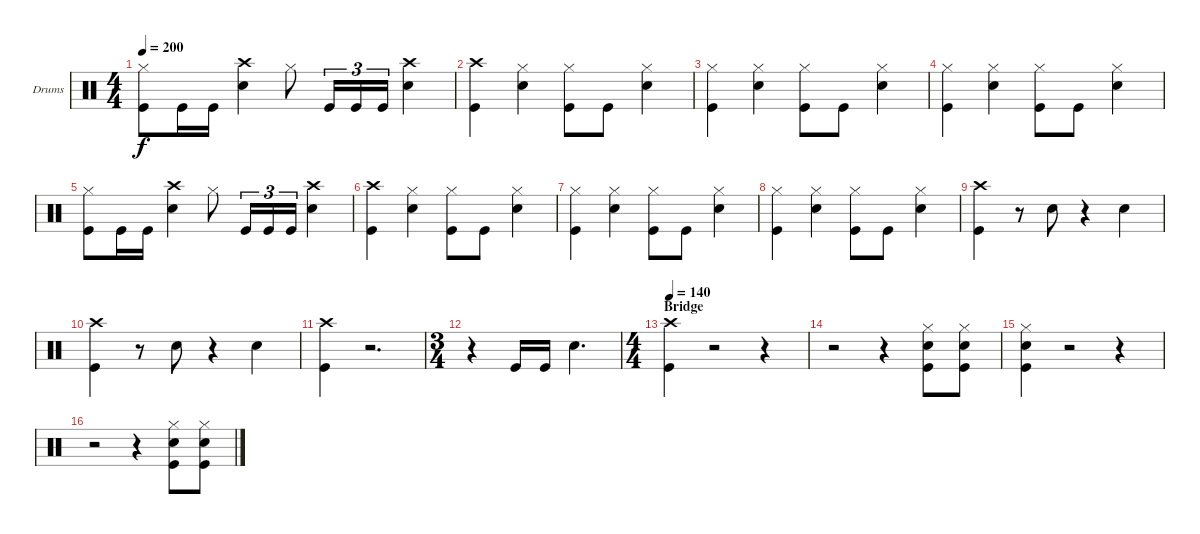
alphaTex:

\defaultSystemsLayout 4
\bracketExtendMode groupsimilarinstruments
\firstSystemTrackNameOrientation horizontal
\otherSystemsTrackNameOrientation horizontal
\track ("Drums" "Drums") {instrument percussion}
\staff {score}
\articulation defaults
\ts (4 4)
\tempo 200
\clef neutral
\ks c
("Hi-Hat (closed)" "Kick (hit)").8{dy f} "Kick (hit)".16 "Kick (hit)".16 ("Snare (hit) 2" "Crash high (hit)").4 "Hi-Hat (closed)".8 "Kick (hit)".16{tu (3 2)} "Kick (hit)".16{tu (3 2)} "Kick (hit)".16{tu (3 2)} ("Snare (hit) 2" "Crash high (hit)").4 |
("Crash high (hit)" "Kick (hit)").4 ("Snare (hit) 2" "Hi-Hat (closed)").4 ("Kick (hit)" "Hi-Hat (closed)").8 "Kick (hit)".8 ("Snare (hit) 2" "Hi-Hat (closed)").4 |
("Kick (hit)" "Hi-Hat (closed)").4 ("Snare (hit) 2" "Hi-Hat (closed)").4 ("Hi-Hat (closed)" "Kick (hit)").8 "Kick (hit)".8 ("Snare (hit) 2" "Hi-Hat (closed)").4 |
("Kick (hit)" "Hi-Hat (closed)").4 ("Snare (hit) 2" "Hi-Hat (closed)").4 ("Hi-Hat (closed)" "Kick (hit)").8 "Kick (hit)".8 ("Snare (hit) 2" "Hi-Hat (closed)").4 |
("Hi-Hat (closed)" "Kick (hit)").8 "Kick (hit)".16 "Kick (hit)".16 ("Snare (hit) 2" "Crash high (hit)").4 "Hi-Hat (closed)".8 "Kick (hit)".16{tu (3 2)} "Kick (hit)".16{tu (3 2)} "Kick (hit)".16{tu (3 2)} ("Snare (hit) 2" "Crash high (hit)").4 |
("Crash high (hit)" "Kick (hit)").4 ("Snare (hit) 2" "Hi-Hat (closed)").4 ("Kick (hit)" "Hi-Hat (closed)").8 "Kick (hit)".8 ("Snare (hit) 2" "Hi-Hat (closed)").4 |
("Kick (hit)" "Hi-Hat (closed)").4 ("Snare (hit) 2" "Hi-Hat (closed)").4 ("Hi-Hat (closed)" "Kick (hit)").8 "Kick (hit)".8 ("Snare (hit) 2" "Hi-Hat (closed)").4 |
("Kick (hit)" "Hi-Hat (closed)").4 ("Snare (hit) 2" "Hi-Hat (closed)").4 ("Kick (hit)" "Hi-Hat (closed)").8 "Kick (hit)".8 ("Snare (hit) 2" "Hi-Hat (closed)").4 |
("Kick (hit)" "Crash high (hit)").4 r.8 "Snare (hit) 2".8 r.4 "Snare (hit) 2".4 |
("Kick (hit)" "Crash high (hit)").4 r.8 "Snare (hit) 2".8 r.4 "Snare (hit) 2".4 |
("Kick (hit)" "Crash high (hit)").4 r.2{d} |
\ts (3 4)
r.4 "Kick (hit)".16 "Kick (hit)".16 "Snare (hit) 2".4{d} |
\ts (4 4)
\section ("" "Bridge")
\tempo 140
("Kick (hit)" "Crash high (hit)").4 r.2 r.4 |
r.2 r.4 ("Kick (hit)" "Snare (hit) 2" "Hi-Hat (closed)").8 ("Hi-Hat (closed)" "Snare (hit) 2" "Kick (hit)").8 |
("Kick (hit)" "Snare (hit) 2" "Hi-Hat (closed)").4 r.2 r.4 |
r.2 r.4 ("Kick (hit)" "Snare (hit) 2" "Hi-Hat (closed)").8 ("Hi-Hat (closed)" "Snare (hit) 2" "Kick (hit)").8
